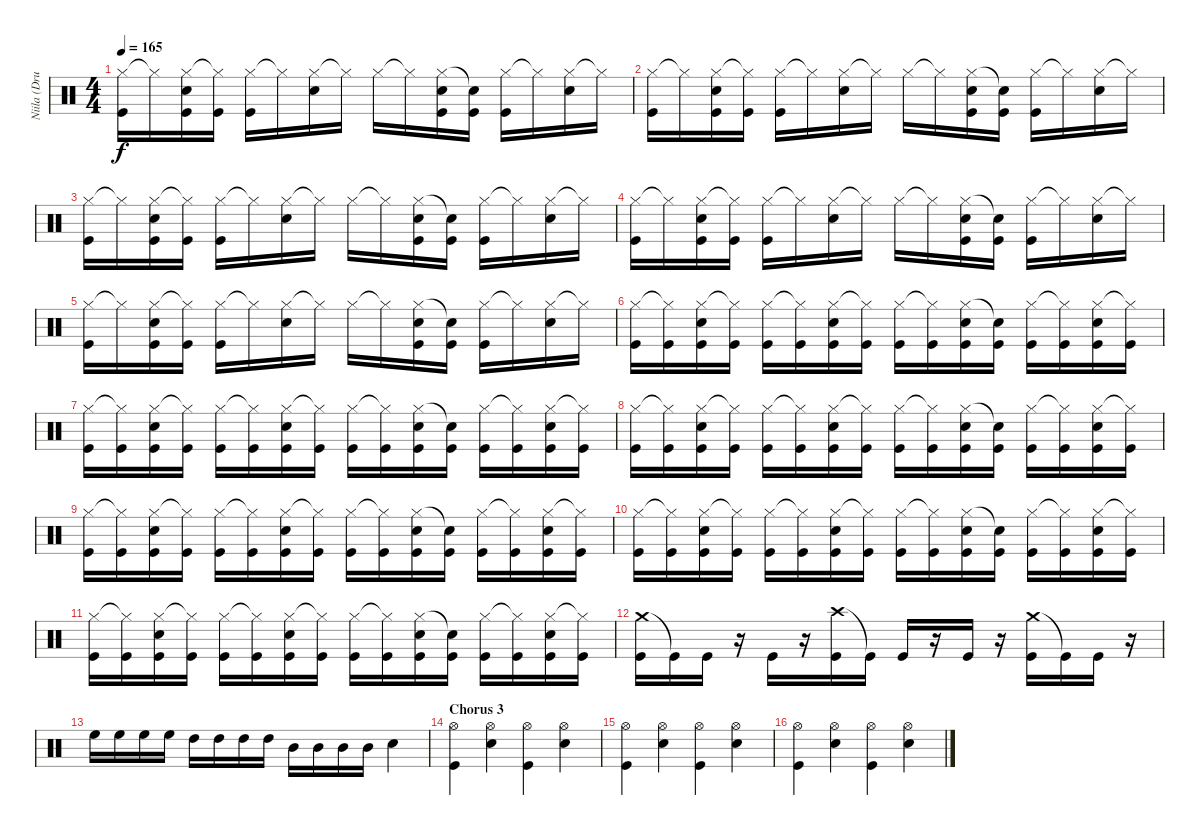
\track ("Niila (Drums)" "Niila (Dru") {instrument percussion}
\staff {score}
\articulation defaults
\ts (4 4)
\tempo 165
\clef neutral
\ks c
("Hi-Hat (closed)" "Kick (hit)").16{dy f} "Hi-Hat (closed)"{t}.16 ("Hi-Hat (closed)" "Snare (hit) 2" "Kick (hit)").16 ("Hi-Hat (closed)"{t} "Kick (hit)").16 ("Hi-Hat (closed)" "Kick (hit)").16 "Hi-Hat (closed)"{t}.16 ("Hi-Hat (closed)" "Snare (hit) 2").16 "Hi-Hat (closed)"{t}.16 "Hi-Hat (closed)".16 "Hi-Hat (closed)"{t}.16 ("Hi-Hat (closed)" "Snare (hit) 2" "Kick (hit)").16 ("Snare (hit)"{t} "Kick (hit)").16 ("Hi-Hat (closed)" "Kick (hit)").16 "Hi-Hat (closed)"{t}.16 ("Hi-Hat (closed)" "Snare (hit) 2").16 "Hi-Hat (closed)"{t}.16 |
("Hi-Hat (closed)" "Kick (hit)").16 "Hi-Hat (closed)"{t}.16 ("Hi-Hat (closed)" "Snare (hit) 2" "Kick (hit)").16 ("Hi-Hat (closed)"{t} "Kick (hit)").16 ("Hi-Hat (closed)" "Kick (hit)").16 "Hi-Hat (closed)"{t}.16 ("Hi-Hat (closed)" "Snare (hit) 2").16 "Hi-Hat (closed)"{t}.16 "Hi-Hat (closed)".16 "Hi-Hat (closed)"{t}.16 ("Hi-Hat (closed)" "Snare (hit) 2" "Kick (hit)").16 ("Snare (hit)"{t} "Kick (hit)").16 ("Hi-Hat (closed)" "Kick (hit)").16 "Hi-Hat (closed)"{t}.16 ("Hi-Hat (closed)" "Snare (hit) 2").16 "Hi-Hat (closed)"{t}.16 |
("Hi-Hat (closed)" "Kick (hit)").16 "Hi-Hat (closed)"{t}.16 ("Hi-Hat (closed)" "Snare (hit) 2" "Kick (hit)").16 ("Hi-Hat (closed)"{t} "Kick (hit)").16 ("Hi-Hat (closed)" "Kick (hit)").16 "Hi-Hat (closed)"{t}.16 ("Hi-Hat (closed)" "Snare (hit) 2").16 "Hi-Hat (closed)"{t}.16 "Hi-Hat (closed)".16 "Hi-Hat (closed)"{t}.16 ("Hi-Hat (closed)" "Snare (hit) 2" "Kick (hit)").16 ("Snare (hit)"{t} "Kick (hit)").16 ("Hi-Hat (closed)" "Kick (hit)").16 "Hi-Hat (closed)"{t}.16 ("Hi-Hat (closed)" "Snare (hit) 2").16 "Hi-Hat (closed)"{t}.16 |
("Hi-Hat (closed)" "Kick (hit)").16 "Hi-Hat (closed)"{t}.16 ("Hi-Hat (closed)" "Snare (hit) 2" "Kick (hit)").16 ("Hi-Hat (closed)"{t} "Kick (hit)").16 ("Hi-Hat (closed)" "Kick (hit)").16 "Hi-Hat (closed)"{t}.16 ("Hi-Hat (closed)" "Snare (hit) 2").16 "Hi-Hat (closed)"{t}.16 "Hi-Hat (closed)".16 "Hi-Hat (closed)"{t}.16 ("Hi-Hat (closed)" "Snare (hit) 2" "Kick (hit)").16 ("Snare (hit)"{t} "Kick (hit)").16 ("Hi-Hat (closed)" "Kick (hit)").16 "Hi-Hat (closed)"{t}.16 ("Hi-Hat (closed)" "Snare (hit) 2").16 "Hi-Hat (closed)"{t}.16 |
("Hi-Hat (closed)" "Kick (hit)").16 "Hi-Hat (closed)"{t}.16 ("Hi-Hat (closed)" "Snare (hit) 2" "Kick (hit)").16 ("Hi-Hat (closed)"{t} "Kick (hit)").16 ("Hi-Hat (closed)" "Kick (hit)").16 "Hi-Hat (closed)"{t}.16 ("Hi-Hat (closed)" "Snare (hit) 2").16 "Hi-Hat (closed)"{t}.16 "Hi-Hat (closed)".16 "Hi-Hat (closed)"{t}.16 ("Hi-Hat (closed)" "Snare (hit) 2" "Kick (hit)").16 ("Snare (hit)"{t} "Kick (hit)").16 ("Hi-Hat (closed)" "Kick (hit)").16 "Hi-Hat (closed)"{t}.16 ("Hi-Hat (closed)" "Snare (hit) 2").16 "Hi-Hat (closed)"{t}.16 |
("Hi-Hat (closed)" "Kick (hit)").16 ("Hi-Hat (closed)"{t} "Kick (hit)").16 ("Hi-Hat (closed)" "Snare (hit) 2" "Kick (hit)").16 ("Hi-Hat (closed)"{t} "Kick (hit)").16 ("Hi-Hat (closed)" "Kick (hit)").16 ("Hi-Hat (closed)"{t} "Kick (hit)").16 ("Hi-Hat (closed)" "Snare (hit) 2" "Kick (hit)").16 ("Hi-Hat (closed)"{t} "Kick (hit)").16 ("Hi-Hat (closed)" "Kick (hit)").16 ("Hi-Hat (closed)"{t} "Kick (hit)").16 ("Hi-Hat (closed)" "Snare (hit) 2" "Kick (hit)").16 ("Snare (hit)"{t} "Kick (hit)").16 ("Hi-Hat (closed)" "Kick (hit)").16 ("Hi-Hat (closed)"{t} "Kick (hit)").16 ("Hi-Hat (closed)" "Snare (hit) 2" "Kick (hit)").16 ("Hi-Hat (closed)"{t} "Kick (hit)").16 |
("Hi-Hat (closed)" "Kick (hit)").16 ("Hi-Hat (closed)"{t} "Kick (hit)").16 ("Hi-Hat (closed)" "Snare (hit) 2" "Kick (hit)").16 ("Hi-Hat (closed)"{t} "Kick (hit)").16 ("Hi-Hat (closed)" "Kick (hit)").16 ("Hi-Hat (closed)"{t} "Kick (hit)").16 ("Hi-Hat (closed)" "Snare (hit) 2" "Kick (hit)").16 ("Hi-Hat (closed)"{t} "Kick (hit)").16 ("Hi-Hat (closed)" "Kick (hit)").16 ("Hi-Hat (closed)"{t} "Kick (hit)").16 ("Hi-Hat (closed)" "Snare (hit) 2" "Kick (hit)").16 ("Snare (hit)"{t} "Kick (hit)").16 ("Hi-Hat (closed)" "Kick (hit)").16 ("Hi-Hat (closed)"{t} "Kick (hit)").16 ("Hi-Hat (closed)" "Snare (hit) 2" "Kick (hit)").16 ("Hi-Hat (closed)"{t} "Kick (hit)").16 |
("Hi-Hat (closed)" "Kick (hit)").16 ("Hi-Hat (closed)"{t} "Kick (hit)").16 ("Hi-Hat (closed)" "Snare (hit) 2" "Kick (hit)").16 ("Hi-Hat (closed)"{t} "Kick (hit)").16 ("Hi-Hat (closed)" "Kick (hit)").16 ("Hi-Hat (closed)"{t} "Kick (hit)").16 ("Hi-Hat (closed)" "Snare (hit) 2" "Kick (hit)").16 ("Hi-Hat (closed)"{t} "Kick (hit)").16 ("Hi-Hat (closed)" "Kick (hit)").16 ("Hi-Hat (closed)"{t} "Kick (hit)").16 ("Hi-Hat (closed)" "Snare (hit) 2" "Kick (hit)").16 ("Snare (hit)"{t} "Kick (hit)").16 ("Hi-Hat (closed)" "Kick (hit)").16 ("Hi-Hat (closed)"{t} "Kick (hit)").16 ("Hi-Hat (closed)" "Snare (hit) 2" "Kick (hit)").16 ("Hi-Hat (closed)"{t} "Kick (hit)").16 |
("Hi-Hat (closed)" "Kick (hit)").16 ("Hi-Hat (closed)"{t} "Kick (hit)").16 ("Hi-Hat (closed)" "Snare (hit) 2" "Kick (hit)").16 ("Hi-Hat (closed)"{t} "Kick (hit)").16 ("Hi-Hat (closed)" "Kick (hit)").16 ("Hi-Hat (closed)"{t} "Kick (hit)").16 ("Hi-Hat (closed)" "Snare (hit) 2" "Kick (hit)").16 ("Hi-Hat (closed)"{t} "Kick (hit)").16 ("Hi-Hat (closed)" "Kick (hit)").16 ("Hi-Hat (closed)"{t} "Kick (hit)").16 ("Hi-Hat (closed)" "Snare (hit) 2" "Kick (hit)").16 ("Snare (hit)"{t} "Kick (hit)").16 ("Hi-Hat (closed)" "Kick (hit)").16 ("Hi-Hat (closed)"{t} "Kick (hit)").16 ("Hi-Hat (closed)" "Snare (hit) 2" "Kick (hit)").16 ("Hi-Hat (closed)"{t} "Kick (hit)").16 |
("Hi-Hat (closed)" "Kick (hit)").16 ("Hi-Hat (closed)"{t} "Kick (hit)").16 ("Hi-Hat (closed)" "Snare (hit) 2" "Kick (hit)").16 ("Hi-Hat (closed)"{t} "Kick (hit)").16 ("Hi-Hat (closed)" "Kick (hit)").16 ("Hi-Hat (closed)"{t} "Kick (hit)").16 ("Hi-Hat (closed)" "Snare (hit) 2" "Kick (hit)").16 ("Hi-Hat (closed)"{t} "Kick (hit)").16 ("Hi-Hat (closed)" "Kick (hit)").16 ("Hi-Hat (closed)"{t} "Kick (hit)").16 ("Hi-Hat (closed)" "Snare (hit) 2" "Kick (hit)").16 ("Snare (hit)"{t} "Kick (hit)").16 ("Hi-Hat (closed)" "Kick (hit)").16 ("Hi-Hat (closed)"{t} "Kick (hit)").16 ("Hi-Hat (closed)" "Snare (hit) 2" "Kick (hit)").16 ("Hi-Hat (closed)"{t} "Kick (hit)").16 |
("Hi-Hat (closed)" "Kick (hit)").16 ("Hi-Hat (closed)"{t} "Kick (hit)").16 ("Hi-Hat (closed)" "Snare (hit) 2" "Kick (hit)").16 ("Hi-Hat (closed)"{t} "Kick (hit)").16 ("Hi-Hat (closed)" "Kick (hit)").16 ("Hi-Hat (closed)"{t} "Kick (hit)").16 ("Hi-Hat (closed)" "Snare (hit) 2" "Kick (hit)").16 ("Hi-Hat (closed)"{t} "Kick (hit)").16 ("Hi-Hat (closed)" "Kick (hit)").16 ("Hi-Hat (closed)"{t} "Kick (hit)").16 ("Hi-Hat (closed)" "Snare (hit) 2" "Kick (hit)").16 ("Snare (hit)"{t} "Kick (hit)").16 ("Hi-Hat (closed)" "Kick (hit)").16 ("Hi-Hat (closed)"{t} "Kick (hit)").16 ("Hi-Hat (closed)" "Snare (hit) 2" "Kick (hit)").16 ("Hi-Hat (closed)"{t} "Kick (hit)").16 |
("Crash medium (hit)" "Kick (hit)").16 "Kick (hit)"{t}.16 "Kick (hit)".16 r.16 "Kick (hit)".16 r.16 ("Crash high (hit)" "Kick (hit)").16 "Kick (hit)"{t}.16 "Kick (hit)".16 r.16 "Kick (hit)".16 r.16 ("Crash medium (hit)" "Kick (hit)").16 "Kick (hit)"{t}.16 "Kick (hit)".16 r.16 |
"High Floor Tom (hit)".16 "High Floor Tom (hit)".16 "High Floor Tom (hit)".16 "High Floor Tom (hit)".16 "High Tom (hit)".16 "High Tom (hit)".16 "High Tom (hit)".16 "High Tom (hit)".16 "Mid Tom (hit)".16 "Mid Tom (hit)".16 "Mid Tom (hit)".16 "Mid Tom (hit)".16 "Snare (hit) 2".4 |
\section ("" "Chorus 3")
("Hi-Hat (open)" "Kick (hit)").4 ("Hi-Hat (open)" "Snare (hit) 2").4 ("Hi-Hat (open)" "Kick (hit)").4 ("Hi-Hat (open)" "Snare (hit) 2").4 |
("Hi-Hat (open)" "Kick (hit)").4 ("Hi-Hat (open)" "Snare (hit) 2").4 ("Hi-Hat (open)" "Kick (hit)").4 ("Hi-Hat (open)" "Snare (hit) 2").4 |
("Hi-Hat (open)" "Kick (hit)").4 ("Hi-Hat (open)" "Snare (hit) 2").4 ("Hi-Hat (open)" "Kick (hit)").4 ("Hi-Hat (open)" "Snare (hit) 2").4
